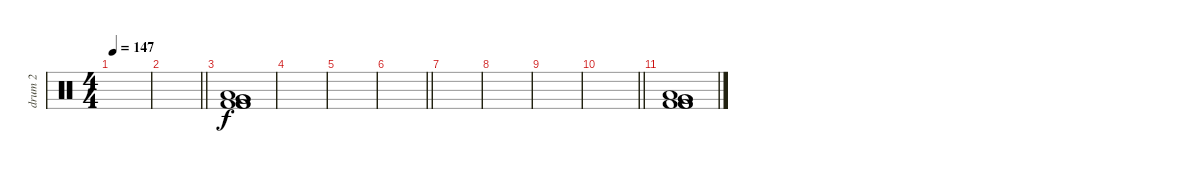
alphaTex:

\track ("drum 2" "drum 2") {instrument percussion}
\staff {score}
\articulation defaults
\ts (4 4)
\tempo 147
\clef neutral
\ks c
|
\barLineRight lightlight
|
\section ("" "")
("Low Floor Tom (hit)" "Very Low Tom (hit)" "Very Low Tom (hit)" "Kick (hit) 2" "Kick (hit) 2" "Kick (hit) 2").1 |
|
|
\barLineRight lightlight
|
|
|
|
\barLineRight lightlight
|
\section ("" "")
("Low Floor Tom (hit)" "Very Low Tom (hit)" "Very Low Tom (hit)" "Kick (hit) 2" "Kick (hit) 2" "Kick (hit) 2").1
